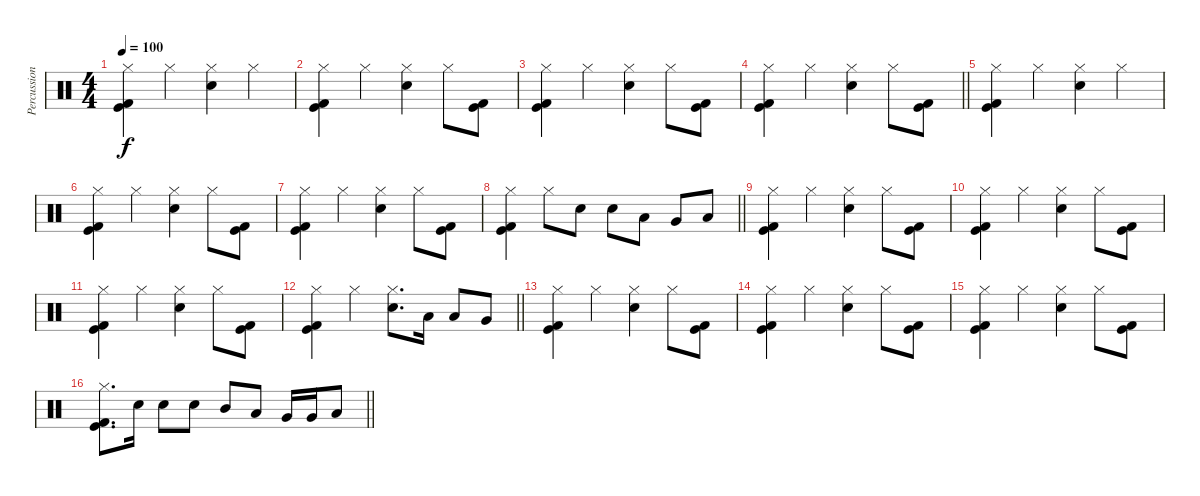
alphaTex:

\track ("Percussion" "Percussion") {instrument percussion}
\staff {score}
\articulation defaults
\ts (4 4)
\tempo 100
\clef neutral
\ks c
("Hi-Hat (closed)" "Kick (hit)" "Kick (hit) 2").4{dy f} "Hi-Hat (closed)".4 ("Hi-Hat (closed)" "Electric Snare (hit)").4 "Hi-Hat (closed)".4 |
("Hi-Hat (closed)" "Kick (hit)" "Kick (hit) 2").4 "Hi-Hat (closed)".4 ("Hi-Hat (closed)" "Electric Snare (hit)").4 "Hi-Hat (closed)".8 ("Kick (hit)" "Kick (hit) 2").8 |
("Hi-Hat (closed)" "Kick (hit)" "Kick (hit) 2").4 "Hi-Hat (closed)".4 ("Hi-Hat (closed)" "Electric Snare (hit)").4 "Hi-Hat (closed)".8 ("Kick (hit)" "Kick (hit) 2").8 |
\barLineRight lightlight
("Hi-Hat (closed)" "Kick (hit)" "Kick (hit) 2").4 "Hi-Hat (closed)".4 ("Hi-Hat (closed)" "Electric Snare (hit)").4 "Hi-Hat (closed)".8 ("Kick (hit)" "Kick (hit) 2").8 |
\section ("" "")
("Hi-Hat (closed)" "Kick (hit)" "Kick (hit) 2").4 "Hi-Hat (closed)".4 ("Hi-Hat (closed)" "Electric Snare (hit)").4 "Hi-Hat (closed)".4 |
("Hi-Hat (closed)" "Kick (hit)" "Kick (hit) 2").4 "Hi-Hat (closed)".4 ("Hi-Hat (closed)" "Electric Snare (hit)").4 "Hi-Hat (closed)".8 ("Kick (hit)" "Kick (hit) 2").8 |
("Hi-Hat (closed)" "Kick (hit)" "Kick (hit) 2").4 "Hi-Hat (closed)".4 ("Hi-Hat (closed)" "Electric Snare (hit)").4 "Hi-Hat (closed)".8 ("Kick (hit)" "Kick (hit) 2").8 |
\barLineRight lightlight
("Hi-Hat (closed)" "Kick (hit)" "Kick (hit) 2").4 "Hi-Hat (closed)".8 "Electric Snare (hit)".8 "Electric Snare (hit)".8 "Low Tom (hit)".8 "Very Low Tom (hit)".8 "Low Floor Tom (hit)".8 |
\section ("" "")
("Hi-Hat (closed)" "Kick (hit)" "Kick (hit) 2").4 "Hi-Hat (closed)".4 ("Hi-Hat (closed)" "Electric Snare (hit)").4 "Hi-Hat (closed)".8 ("Kick (hit)" "Kick (hit) 2").8 |
("Hi-Hat (closed)" "Kick (hit)" "Kick (hit) 2").4 "Hi-Hat (closed)".4 ("Hi-Hat (closed)" "Electric Snare (hit)").4 "Hi-Hat (closed)".8 ("Kick (hit)" "Kick (hit) 2").8 |
("Hi-Hat (closed)" "Kick (hit)" "Kick (hit) 2").4 "Hi-Hat (closed)".4 ("Hi-Hat (closed)" "Electric Snare (hit)").4 "Hi-Hat (closed)".8 ("Kick (hit)" "Kick (hit) 2").8 |
\barLineRight lightlight
("Hi-Hat (closed)" "Kick (hit)" "Kick (hit) 2").4 "Hi-Hat (closed)".4 ("Hi-Hat (closed)" "Electric Snare (hit)").8{d} "Low Tom (hit)".16 "Low Tom (hit)".8 "Very Low Tom (hit)".8 |
\section ("" "")
("Hi-Hat (closed)" "Kick (hit)" "Kick (hit) 2").4 "Hi-Hat (closed)".4 ("Hi-Hat (closed)" "Electric Snare (hit)").4 "Hi-Hat (closed)".8 ("Kick (hit)" "Kick (hit) 2").8 |
("Hi-Hat (closed)" "Kick (hit)" "Kick (hit) 2").4 "Hi-Hat (closed)".4 ("Hi-Hat (closed)" "Electric Snare (hit)").4 "Hi-Hat (closed)".8 ("Kick (hit)" "Kick (hit) 2").8 |
("Hi-Hat (closed)" "Kick (hit)" "Kick (hit) 2").4 "Hi-Hat (closed)".4 ("Hi-Hat (closed)" "Electric Snare (hit)").4 "Hi-Hat (closed)".8 ("Kick (hit)" "Kick (hit) 2").8 |
\barLineRight lightlight
("Hi-Hat (closed)" "Kick (hit)" "Kick (hit) 2").8{d} "Electric Snare (hit)".16 "Electric Snare (hit)".8 "Electric Snare (hit)".8 "Mid Tom (hit)".8 "Low Tom (hit)".8 "Very Low Tom (hit)".16 "Very Low Tom (hit)".16 "Low Floor Tom (hit)".8
